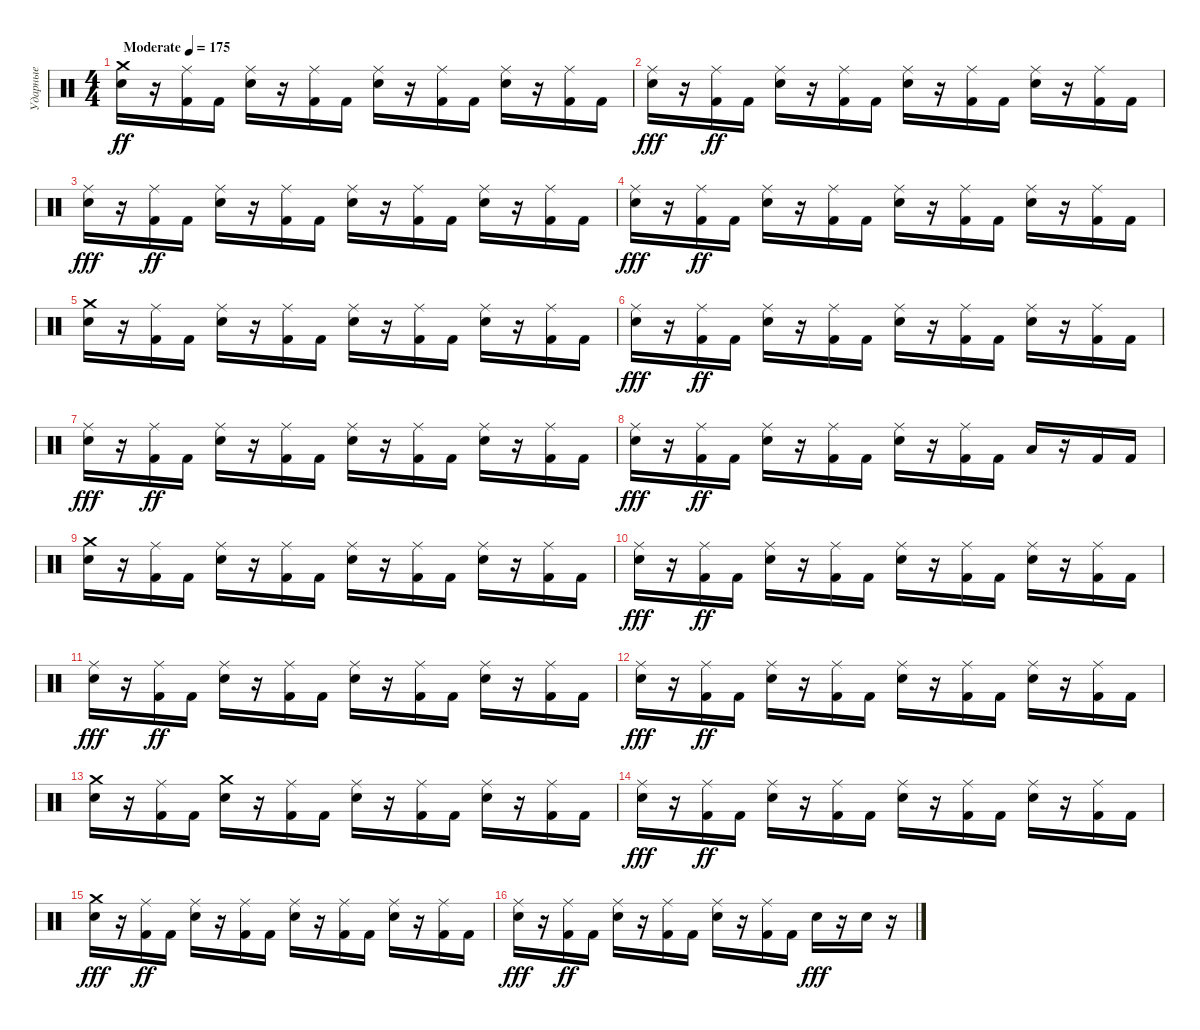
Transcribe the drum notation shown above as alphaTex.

\track ("Ударные" "Ударные") {instrument percussion}
\staff {score}
\articulation defaults
\ts (4 4)
\tempo (175 "Moderate")
\clef neutral
\ks c
("Electric Snare (hit)" "Crash medium (hit)").16{dy ff} r.16 ("Kick (hit) 2" "Ride (middle)").16 "Kick (hit) 2".16 ("Electric Snare (hit)" "Ride (middle)").16 r.16 ("Kick (hit) 2" "Ride (middle)").16 "Kick (hit) 2".16 ("Electric Snare (hit)" "Ride (middle)").16 r.16 ("Kick (hit) 2" "Ride (middle)").16 "Kick (hit) 2".16 ("Electric Snare (hit)" "Ride (middle)").16 r.16 ("Kick (hit) 2" "Ride (middle)").16 "Kick (hit) 2".16 |
("Electric Snare (hit)" "Ride (middle)").16{dy fff} r.16 ("Kick (hit) 2" "Ride (middle)").16{dy ff} "Kick (hit) 2".16 ("Electric Snare (hit)" "Ride (middle)").16 r.16 ("Kick (hit) 2" "Ride (middle)").16 "Kick (hit) 2".16 ("Electric Snare (hit)" "Ride (middle)").16 r.16 ("Kick (hit) 2" "Ride (middle)").16 "Kick (hit) 2".16 ("Electric Snare (hit)" "Ride (middle)").16 r.16 ("Kick (hit) 2" "Ride (middle)").16 "Kick (hit) 2".16 |
("Electric Snare (hit)" "Ride (middle)").16{dy fff} r.16 ("Kick (hit) 2" "Ride (middle)").16{dy ff} "Kick (hit) 2".16 ("Electric Snare (hit)" "Ride (middle)").16 r.16 ("Kick (hit) 2" "Ride (middle)").16 "Kick (hit) 2".16 ("Electric Snare (hit)" "Ride (middle)").16 r.16 ("Kick (hit) 2" "Ride (middle)").16 "Kick (hit) 2".16 ("Electric Snare (hit)" "Ride (middle)").16 r.16 ("Kick (hit) 2" "Ride (middle)").16 "Kick (hit) 2".16 |
("Electric Snare (hit)" "Ride (middle)").16{dy fff} r.16 ("Kick (hit) 2" "Ride (middle)").16{dy ff} "Kick (hit) 2".16 ("Electric Snare (hit)" "Ride (middle)").16 r.16 ("Kick (hit) 2" "Ride (middle)").16 "Kick (hit) 2".16 ("Electric Snare (hit)" "Ride (middle)").16 r.16 ("Kick (hit) 2" "Ride (middle)").16 "Kick (hit) 2".16 ("Electric Snare (hit)" "Ride (middle)").16 r.16 ("Kick (hit) 2" "Ride (middle)").16 "Kick (hit) 2".16 |
("Electric Snare (hit)" "Crash medium (hit)").16 r.16 ("Kick (hit) 2" "Ride (middle)").16 "Kick (hit) 2".16 ("Electric Snare (hit)" "Ride (middle)").16 r.16 ("Kick (hit) 2" "Ride (middle)").16 "Kick (hit) 2".16 ("Electric Snare (hit)" "Ride (middle)").16 r.16 ("Kick (hit) 2" "Ride (middle)").16 "Kick (hit) 2".16 ("Electric Snare (hit)" "Ride (middle)").16 r.16 ("Kick (hit) 2" "Ride (middle)").16 "Kick (hit) 2".16 |
("Electric Snare (hit)" "Ride (middle)").16{dy fff} r.16 ("Kick (hit) 2" "Ride (middle)").16{dy ff} "Kick (hit) 2".16 ("Electric Snare (hit)" "Ride (middle)").16 r.16 ("Kick (hit) 2" "Ride (middle)").16 "Kick (hit) 2".16 ("Electric Snare (hit)" "Ride (middle)").16 r.16 ("Kick (hit) 2" "Ride (middle)").16 "Kick (hit) 2".16 ("Electric Snare (hit)" "Ride (middle)").16 r.16 ("Kick (hit) 2" "Ride (middle)").16 "Kick (hit) 2".16 |
("Electric Snare (hit)" "Ride (middle)").16{dy fff} r.16 ("Kick (hit) 2" "Ride (middle)").16{dy ff} "Kick (hit) 2".16 ("Electric Snare (hit)" "Ride (middle)").16 r.16 ("Kick (hit) 2" "Ride (middle)").16 "Kick (hit) 2".16 ("Electric Snare (hit)" "Ride (middle)").16 r.16 ("Kick (hit) 2" "Ride (middle)").16 "Kick (hit) 2".16 ("Electric Snare (hit)" "Ride (middle)").16 r.16 ("Kick (hit) 2" "Ride (middle)").16 "Kick (hit) 2".16 |
("Electric Snare (hit)" "Ride (middle)").16{dy fff} r.16 ("Kick (hit) 2" "Ride (middle)").16{dy ff} "Kick (hit) 2".16 ("Electric Snare (hit)" "Ride (middle)").16 r.16 ("Kick (hit) 2" "Ride (middle)").16 "Kick (hit) 2".16 ("Electric Snare (hit)" "Ride (middle)").16 r.16 ("Kick (hit) 2" "Ride (middle)").16 "Kick (hit) 2".16 "Low Tom (hit)".16 r.16 "Kick (hit) 2".16 "Kick (hit) 2".16 |
("Electric Snare (hit)" "Crash medium (hit)").16 r.16 ("Kick (hit) 2" "Ride (middle)").16 "Kick (hit) 2".16 ("Electric Snare (hit)" "Ride (middle)").16 r.16 ("Kick (hit) 2" "Ride (middle)").16 "Kick (hit) 2".16 ("Electric Snare (hit)" "Ride (middle)").16 r.16 ("Kick (hit) 2" "Ride (middle)").16 "Kick (hit) 2".16 ("Electric Snare (hit)" "Ride (middle)").16 r.16 ("Kick (hit) 2" "Ride (middle)").16 "Kick (hit) 2".16 |
("Electric Snare (hit)" "Ride (middle)").16{dy fff} r.16 ("Kick (hit) 2" "Ride (middle)").16{dy ff} "Kick (hit) 2".16 ("Electric Snare (hit)" "Ride (middle)").16 r.16 ("Kick (hit) 2" "Ride (middle)").16 "Kick (hit) 2".16 ("Electric Snare (hit)" "Ride (middle)").16 r.16 ("Kick (hit) 2" "Ride (middle)").16 "Kick (hit) 2".16 ("Electric Snare (hit)" "Ride (middle)").16 r.16 ("Kick (hit) 2" "Ride (middle)").16 "Kick (hit) 2".16 |
("Electric Snare (hit)" "Ride (middle)").16{dy fff} r.16 ("Kick (hit) 2" "Ride (middle)").16{dy ff} "Kick (hit) 2".16 ("Electric Snare (hit)" "Ride (middle)").16 r.16 ("Kick (hit) 2" "Ride (middle)").16 "Kick (hit) 2".16 ("Electric Snare (hit)" "Ride (middle)").16 r.16 ("Kick (hit) 2" "Ride (middle)").16 "Kick (hit) 2".16 ("Electric Snare (hit)" "Ride (middle)").16 r.16 ("Kick (hit) 2" "Ride (middle)").16 "Kick (hit) 2".16 |
("Electric Snare (hit)" "Ride (middle)").16{dy fff} r.16 ("Kick (hit) 2" "Ride (middle)").16{dy ff} "Kick (hit) 2".16 ("Electric Snare (hit)" "Ride (middle)").16 r.16 ("Kick (hit) 2" "Ride (middle)").16 "Kick (hit) 2".16 ("Electric Snare (hit)" "Ride (middle)").16 r.16 ("Kick (hit) 2" "Ride (middle)").16 "Kick (hit) 2".16 ("Electric Snare (hit)" "Ride (middle)").16 r.16 ("Kick (hit) 2" "Ride (middle)").16 "Kick (hit) 2".16 |
("Electric Snare (hit)" "Crash medium (hit)").16 r.16 ("Kick (hit) 2" "Ride (middle)").16 "Kick (hit) 2".16 ("Electric Snare (hit)" "Crash medium (hit)").16 r.16 ("Kick (hit) 2" "Ride (middle)").16 "Kick (hit) 2".16 ("Electric Snare (hit)" "Ride (middle)").16 r.16 ("Kick (hit) 2" "Ride (middle)").16 "Kick (hit) 2".16 ("Electric Snare (hit)" "Ride (middle)").16 r.16 ("Kick (hit) 2" "Ride (middle)").16 "Kick (hit) 2".16 |
("Electric Snare (hit)" "Ride (middle)").16{dy fff} r.16 ("Kick (hit) 2" "Ride (middle)").16{dy ff} "Kick (hit) 2".16 ("Electric Snare (hit)" "Ride (middle)").16 r.16 ("Kick (hit) 2" "Ride (middle)").16 "Kick (hit) 2".16 ("Electric Snare (hit)" "Ride (middle)").16 r.16 ("Kick (hit) 2" "Ride (middle)").16 "Kick (hit) 2".16 ("Electric Snare (hit)" "Ride (middle)").16 r.16 ("Kick (hit) 2" "Ride (middle)").16 "Kick (hit) 2".16 |
("Electric Snare (hit)" "Crash medium (hit)").16{dy fff} r.16 ("Kick (hit) 2" "Ride (middle)").16{dy ff} "Kick (hit) 2".16 ("Electric Snare (hit)" "Ride (middle)").16 r.16 ("Kick (hit) 2" "Ride (middle)").16 "Kick (hit) 2".16 ("Electric Snare (hit)" "Ride (middle)").16 r.16 ("Kick (hit) 2" "Ride (middle)").16 "Kick (hit) 2".16 ("Electric Snare (hit)" "Ride (middle)").16 r.16 ("Kick (hit) 2" "Ride (middle)").16 "Kick (hit) 2".16 |
("Electric Snare (hit)" "Ride (middle)").16{dy fff} r.16 ("Kick (hit) 2" "Ride (middle)").16{dy ff} "Kick (hit) 2".16 ("Electric Snare (hit)" "Ride (middle)").16 r.16 ("Kick (hit) 2" "Ride (middle)").16 "Kick (hit) 2".16 ("Electric Snare (hit)" "Ride (middle)").16 r.16 ("Kick (hit) 2" "Ride (middle)").16 "Kick (hit) 2".16 "Electric Snare (hit)".16{dy fff} r.16 "Electric Snare (hit)".16 r.16
